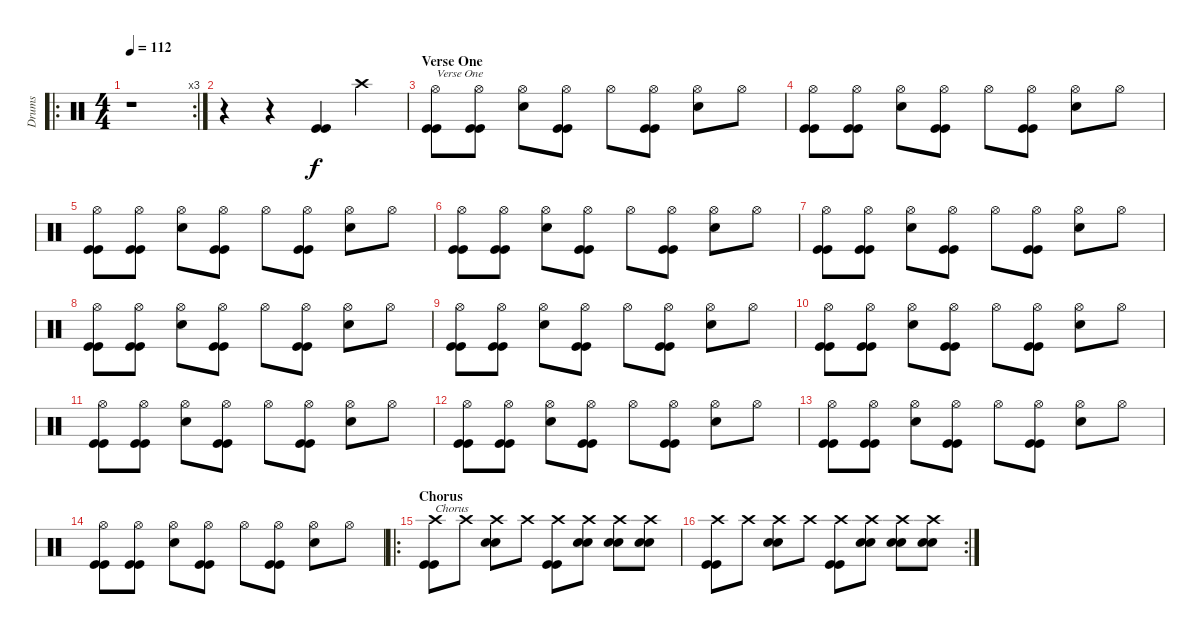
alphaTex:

\track ("Drums" "Drums") {instrument percussion}
\staff {score}
\articulation defaults
\ro
\rc 3
\ts (4 4)
\tempo 112
\clef neutral
\ks c
r.1{dy f} |
r.4 r.4 ("Kick (hit)" "Kick (hit)").4 "Crash high (hit)".4 |
\section ("" "Verse One")
("Hi-Hat (open)" "Kick (hit)" "Kick (hit)").8{txt "Verse One"} ("Hi-Hat (open)" "Kick (hit)" "Kick (hit)").8 ("Hi-Hat (open)" "Snare (hit) 2").8 ("Hi-Hat (open)" "Kick (hit)" "Kick (hit)").8 "Hi-Hat (open)".8 ("Hi-Hat (open)" "Kick (hit)" "Kick (hit)").8 ("Hi-Hat (open)" "Snare (hit) 2").8 "Hi-Hat (open)".8 |
("Hi-Hat (open)" "Kick (hit)" "Kick (hit)").8 ("Hi-Hat (open)" "Kick (hit)" "Kick (hit)").8 ("Hi-Hat (open)" "Snare (hit) 2").8 ("Hi-Hat (open)" "Kick (hit)" "Kick (hit)").8 "Hi-Hat (open)".8 ("Hi-Hat (open)" "Kick (hit)" "Kick (hit)").8 ("Hi-Hat (open)" "Snare (hit) 2").8 "Hi-Hat (open)".8 |
("Hi-Hat (open)" "Kick (hit)" "Kick (hit)").8 ("Hi-Hat (open)" "Kick (hit)" "Kick (hit)").8 ("Hi-Hat (open)" "Snare (hit) 2").8 ("Hi-Hat (open)" "Kick (hit)" "Kick (hit)").8 "Hi-Hat (open)".8 ("Hi-Hat (open)" "Kick (hit)" "Kick (hit)").8 ("Hi-Hat (open)" "Snare (hit) 2").8 "Hi-Hat (open)".8 |
("Hi-Hat (open)" "Kick (hit)" "Kick (hit)").8 ("Hi-Hat (open)" "Kick (hit)" "Kick (hit)").8 ("Hi-Hat (open)" "Snare (hit) 2").8 ("Hi-Hat (open)" "Kick (hit)" "Kick (hit)").8 "Hi-Hat (open)".8 ("Hi-Hat (open)" "Kick (hit)" "Kick (hit)").8 ("Hi-Hat (open)" "Snare (hit) 2").8 "Hi-Hat (open)".8 |
("Hi-Hat (open)" "Kick (hit)" "Kick (hit)").8 ("Hi-Hat (open)" "Kick (hit)" "Kick (hit)").8 ("Hi-Hat (open)" "Snare (hit) 2").8 ("Hi-Hat (open)" "Kick (hit)" "Kick (hit)").8 "Hi-Hat (open)".8 ("Hi-Hat (open)" "Kick (hit)" "Kick (hit)").8 ("Hi-Hat (open)" "Snare (hit) 2").8 "Hi-Hat (open)".8 |
("Hi-Hat (open)" "Kick (hit)" "Kick (hit)").8 ("Hi-Hat (open)" "Kick (hit)" "Kick (hit)").8 ("Hi-Hat (open)" "Snare (hit) 2").8 ("Hi-Hat (open)" "Kick (hit)" "Kick (hit)").8 "Hi-Hat (open)".8 ("Hi-Hat (open)" "Kick (hit)" "Kick (hit)").8 ("Hi-Hat (open)" "Snare (hit) 2").8 "Hi-Hat (open)".8 |
("Hi-Hat (open)" "Kick (hit)" "Kick (hit)").8 ("Hi-Hat (open)" "Kick (hit)" "Kick (hit)").8 ("Hi-Hat (open)" "Snare (hit) 2").8 ("Hi-Hat (open)" "Kick (hit)" "Kick (hit)").8 "Hi-Hat (open)".8 ("Hi-Hat (open)" "Kick (hit)" "Kick (hit)").8 ("Hi-Hat (open)" "Snare (hit) 2").8 "Hi-Hat (open)".8 |
("Hi-Hat (open)" "Kick (hit)" "Kick (hit)").8 ("Hi-Hat (open)" "Kick (hit)" "Kick (hit)").8 ("Hi-Hat (open)" "Snare (hit) 2").8 ("Hi-Hat (open)" "Kick (hit)" "Kick (hit)").8 "Hi-Hat (open)".8 ("Hi-Hat (open)" "Kick (hit)" "Kick (hit)").8 ("Hi-Hat (open)" "Snare (hit) 2").8 "Hi-Hat (open)".8 |
("Hi-Hat (open)" "Kick (hit)" "Kick (hit)").8 ("Hi-Hat (open)" "Kick (hit)" "Kick (hit)").8 ("Hi-Hat (open)" "Snare (hit) 2").8 ("Hi-Hat (open)" "Kick (hit)" "Kick (hit)").8 "Hi-Hat (open)".8 ("Hi-Hat (open)" "Kick (hit)" "Kick (hit)").8 ("Hi-Hat (open)" "Snare (hit) 2").8 "Hi-Hat (open)".8 |
("Hi-Hat (open)" "Kick (hit)" "Kick (hit)").8 ("Hi-Hat (open)" "Kick (hit)" "Kick (hit)").8 ("Hi-Hat (open)" "Snare (hit) 2").8 ("Hi-Hat (open)" "Kick (hit)" "Kick (hit)").8 "Hi-Hat (open)".8 ("Hi-Hat (open)" "Kick (hit)" "Kick (hit)").8 ("Hi-Hat (open)" "Snare (hit) 2").8 "Hi-Hat (open)".8 |
("Hi-Hat (open)" "Kick (hit)" "Kick (hit)").8 ("Hi-Hat (open)" "Kick (hit)" "Kick (hit)").8 ("Hi-Hat (open)" "Snare (hit) 2").8 ("Hi-Hat (open)" "Kick (hit)" "Kick (hit)").8 "Hi-Hat (open)".8 ("Hi-Hat (open)" "Kick (hit)" "Kick (hit)").8 ("Hi-Hat (open)" "Snare (hit) 2").8 "Hi-Hat (open)".8 |
("Hi-Hat (open)" "Kick (hit)" "Kick (hit)").8 ("Hi-Hat (open)" "Kick (hit)" "Kick (hit)").8 ("Hi-Hat (open)" "Snare (hit) 2").8 ("Hi-Hat (open)" "Kick (hit)" "Kick (hit)").8 "Hi-Hat (open)".8 ("Hi-Hat (open)" "Kick (hit)" "Kick (hit)").8 ("Hi-Hat (open)" "Snare (hit) 2").8 "Hi-Hat (open)".8 |
\ro
\section ("" "Chorus")
("Crash high (hit)" "Kick (hit)" "Kick (hit)").8{txt "Chorus"} "Crash high (hit)".8 ("Crash high (hit)" "Snare (hit) 2" "Snare (hit) 2").8 "Crash high (hit)".8 ("Crash high (hit)" "Kick (hit)" "Kick (hit)").8 ("Crash high (hit)" "Snare (hit) 2" "Snare (hit) 2").8 ("Crash high (hit)" "Snare (hit) 2" "Snare (hit) 2").8 ("Crash high (hit)" "Snare (hit) 2" "Snare (hit) 2").8 |
\rc 2
("Crash high (hit)" "Kick (hit)" "Kick (hit)").8 "Crash high (hit)".8 ("Crash high (hit)" "Snare (hit) 2" "Snare (hit) 2").8 "Crash high (hit)".8 ("Crash high (hit)" "Kick (hit)" "Kick (hit)").8 ("Crash high (hit)" "Snare (hit) 2" "Snare (hit) 2").8 ("Crash high (hit)" "Snare (hit) 2" "Snare (hit) 2").8 ("Crash high (hit)" "Snare (hit) 2" "Snare (hit) 2").8
